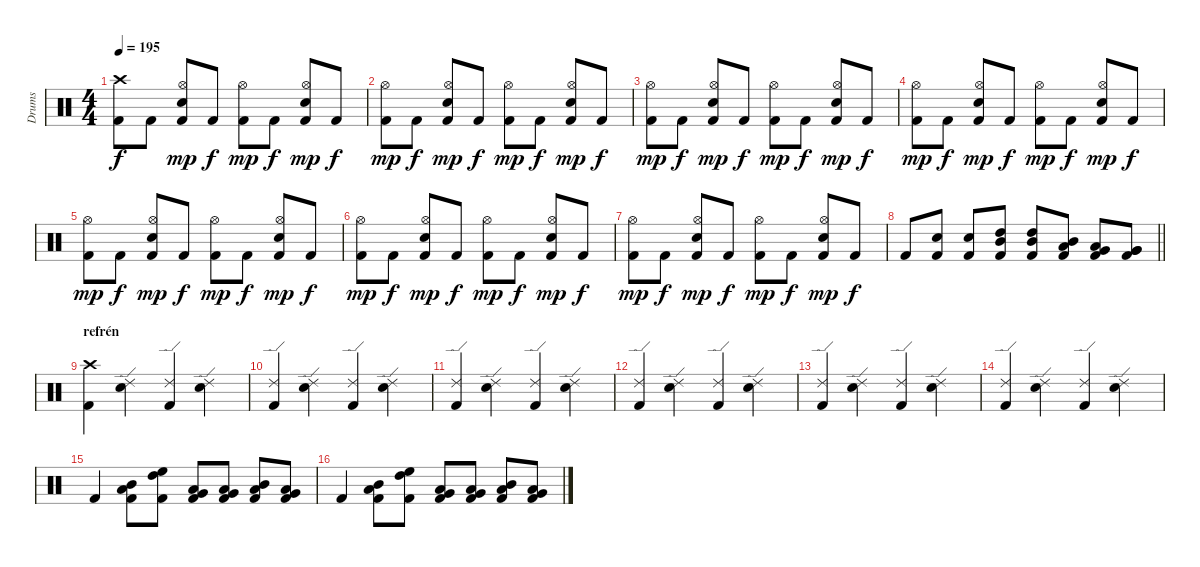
\track ("Drums" "Drums") {instrument percussion}
\staff {score}
\articulation defaults
\ts (4 4)
\tempo 195
\clef neutral
\ks c
("Crash high (hit)" "Kick (hit) 2").8{dy f} "Kick (hit) 2".8 ("Hi-Hat (open)" "Snare (hit) 2" "Kick (hit) 2").8{dy mp} "Kick (hit) 2".8{dy f} ("Hi-Hat (open)" "Kick (hit) 2").8{dy mp} "Kick (hit) 2".8{dy f} ("Hi-Hat (open)" "Snare (hit) 2" "Kick (hit) 2").8{dy mp} "Kick (hit) 2".8{dy f} |
("Hi-Hat (open)" "Kick (hit) 2").8{dy mp} "Kick (hit) 2".8{dy f} ("Hi-Hat (open)" "Snare (hit) 2" "Kick (hit) 2").8{dy mp} "Kick (hit) 2".8{dy f} ("Hi-Hat (open)" "Kick (hit) 2").8{dy mp} "Kick (hit) 2".8{dy f} ("Hi-Hat (open)" "Snare (hit) 2" "Kick (hit) 2").8{dy mp} "Kick (hit) 2".8{dy f} |
("Hi-Hat (open)" "Kick (hit) 2").8{dy mp} "Kick (hit) 2".8{dy f} ("Hi-Hat (open)" "Snare (hit) 2" "Kick (hit) 2").8{dy mp} "Kick (hit) 2".8{dy f} ("Hi-Hat (open)" "Kick (hit) 2").8{dy mp} "Kick (hit) 2".8{dy f} ("Hi-Hat (open)" "Snare (hit) 2" "Kick (hit) 2").8{dy mp} "Kick (hit) 2".8{dy f} |
("Hi-Hat (open)" "Kick (hit) 2").8{dy mp} "Kick (hit) 2".8{dy f} ("Hi-Hat (open)" "Snare (hit) 2" "Kick (hit) 2").8{dy mp} "Kick (hit) 2".8{dy f} ("Hi-Hat (open)" "Kick (hit) 2").8{dy mp} "Kick (hit) 2".8{dy f} ("Hi-Hat (open)" "Snare (hit) 2" "Kick (hit) 2").8{dy mp} "Kick (hit) 2".8{dy f} |
("Hi-Hat (open)" "Kick (hit) 2").8{dy mp} "Kick (hit) 2".8{dy f} ("Hi-Hat (open)" "Snare (hit) 2" "Kick (hit) 2").8{dy mp} "Kick (hit) 2".8{dy f} ("Hi-Hat (open)" "Kick (hit) 2").8{dy mp} "Kick (hit) 2".8{dy f} ("Hi-Hat (open)" "Snare (hit) 2" "Kick (hit) 2").8{dy mp} "Kick (hit) 2".8{dy f} |
("Hi-Hat (open)" "Kick (hit) 2").8{dy mp} "Kick (hit) 2".8{dy f} ("Hi-Hat (open)" "Snare (hit) 2" "Kick (hit) 2").8{dy mp} "Kick (hit) 2".8{dy f} ("Hi-Hat (open)" "Kick (hit) 2").8{dy mp} "Kick (hit) 2".8{dy f} ("Hi-Hat (open)" "Snare (hit) 2" "Kick (hit) 2").8{dy mp} "Kick (hit) 2".8{dy f} |
("Hi-Hat (open)" "Kick (hit) 2").8{dy mp} "Kick (hit) 2".8{dy f} ("Hi-Hat (open)" "Snare (hit) 2" "Kick (hit) 2").8{dy mp} "Kick (hit) 2".8{dy f} ("Hi-Hat (open)" "Kick (hit) 2").8{dy mp} "Kick (hit) 2".8{dy f} ("Hi-Hat (open)" "Snare (hit) 2" "Kick (hit) 2").8{dy mp} "Kick (hit) 2".8{dy f} |
\barLineRight lightlight "Kick (hit) 2".8
("Snare (hit) 2" "Kick (hit) 2").8 ("Snare (hit) 2" "Kick (hit) 2").8 ("High Tom (hit)" "Mid Tom (hit)" "Kick (hit) 2").8 ("High Tom (hit)" "Mid Tom (hit)" "Kick (hit) 2").8 ("Mid Tom (hit)" "Low Tom (hit)" "Kick (hit) 2").8 ("Low Tom (hit)" "Very Low Tom (hit)" "Kick (hit) 2").8 ("Very Low Tom (hit)" "Very Low Tom (hit)" "Kick (hit) 2").8 |
\section ("" "refrén")
("Crash high (hit)" "Kick (hit) 2").4 ("Ride (edge) 2" "Snare (hit) 2").4 ("Ride (edge) 2" "Kick (hit) 2").4 ("Ride (edge) 2" "Snare (hit) 2").4 |
("Ride (edge) 2" "Kick (hit) 2").4 ("Ride (edge) 2" "Snare (hit) 2").4 ("Ride (edge) 2" "Kick (hit) 2").4 ("Ride (edge) 2" "Snare (hit) 2").4 |
("Ride (edge) 2" "Kick (hit) 2").4 ("Ride (edge) 2" "Snare (hit) 2").4 ("Ride (edge) 2" "Kick (hit) 2").4 ("Ride (edge) 2" "Snare (hit) 2").4 |
("Ride (edge) 2" "Kick (hit) 2").4 ("Ride (edge) 2" "Snare (hit) 2").4 ("Ride (edge) 2" "Kick (hit) 2").4 ("Ride (edge) 2" "Snare (hit) 2").4 |
("Ride (edge) 2" "Kick (hit) 2").4 ("Ride (edge) 2" "Snare (hit) 2").4 ("Ride (edge) 2" "Kick (hit) 2").4 ("Ride (edge) 2" "Snare (hit) 2").4 |
("Ride (edge) 2" "Kick (hit) 2").4 ("Ride (edge) 2" "Snare (hit) 2").4 ("Ride (edge) 2" "Kick (hit) 2").4 ("Ride (edge) 2" "Snare (hit) 2").4 |
"Kick (hit) 2".4 ("Mid Tom (hit)" "Low Tom (hit)" "Kick (hit) 2").8 ("High Tom (hit)" "High Floor Tom (hit)" "Kick (hit) 2").8 ("Low Tom (hit)" "Very Low Tom (hit)" "Kick (hit) 2").8 ("Low Tom (hit)" "Very Low Tom (hit)" "Kick (hit) 2").8 ("Mid Tom (hit)" "Low Tom (hit)" "Kick (hit) 2").8 ("Low Tom (hit)" "Very Low Tom (hit)" "Kick (hit) 2").8 |
"Kick (hit) 2".4 ("Mid Tom (hit)" "Low Tom (hit)" "Kick (hit) 2").8 ("High Tom (hit)" "High Floor Tom (hit)" "Kick (hit) 2").8 ("Low Tom (hit)" "Very Low Tom (hit)" "Kick (hit) 2").8 ("Low Tom (hit)" "Very Low Tom (hit)" "Kick (hit) 2").8 ("Mid Tom (hit)" "Low Tom (hit)" "Kick (hit) 2").8 ("Low Tom (hit)" "Very Low Tom (hit)" "Kick (hit) 2").8
